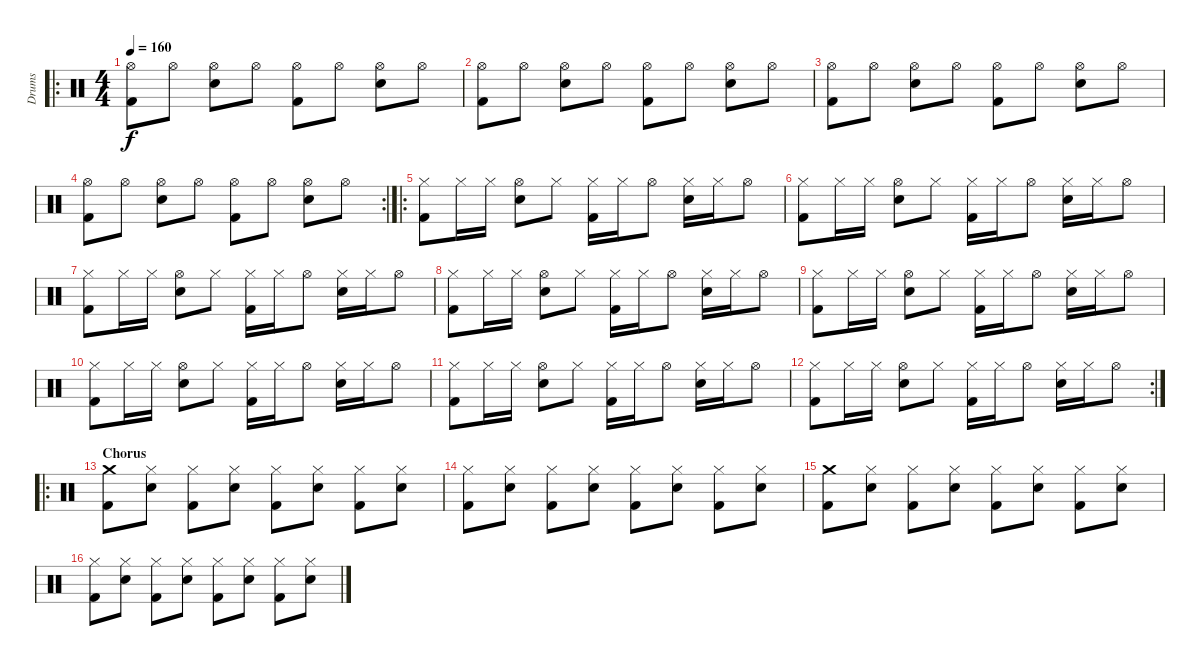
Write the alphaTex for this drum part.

\track ("Drums" "Drums") {instrument percussion}
\staff {score}
\articulation defaults
\ro
\ts (4 4)
\tempo 160
\clef neutral
\ks c
("Hi-Hat (open)" "Kick (hit) 2").8{dy f} "Hi-Hat (open)".8 ("Hi-Hat (open)" "Snare (hit) 2").8 "Hi-Hat (open)".8 ("Hi-Hat (open)" "Kick (hit) 2").8 "Hi-Hat (open)".8 ("Hi-Hat (open)" "Snare (hit) 2").8 "Hi-Hat (open)".8 |
("Hi-Hat (open)" "Kick (hit) 2").8 "Hi-Hat (open)".8 ("Hi-Hat (open)" "Snare (hit) 2").8 "Hi-Hat (open)".8 ("Hi-Hat (open)" "Kick (hit) 2").8 "Hi-Hat (open)".8 ("Hi-Hat (open)" "Snare (hit) 2").8 "Hi-Hat (open)".8 |
("Hi-Hat (open)" "Kick (hit) 2").8 "Hi-Hat (open)".8 ("Hi-Hat (open)" "Snare (hit) 2").8 "Hi-Hat (open)".8 ("Hi-Hat (open)" "Kick (hit) 2").8 "Hi-Hat (open)".8 ("Hi-Hat (open)" "Snare (hit) 2").8 "Hi-Hat (open)".8 |
\rc 2
("Hi-Hat (open)" "Kick (hit) 2").8 "Hi-Hat (open)".8 ("Hi-Hat (open)" "Snare (hit) 2").8 "Hi-Hat (open)".8 ("Hi-Hat (open)" "Kick (hit) 2").8 "Hi-Hat (open)".8 ("Hi-Hat (open)" "Snare (hit) 2").8 "Hi-Hat (open)".8 |
\ro
("Hi-Hat (closed)" "Kick (hit) 2").8 "Hi-Hat (closed)".16 "Hi-Hat (closed)".16 ("Hi-Hat (open)" "Snare (hit) 2").8 "Hi-Hat (closed)".8 ("Hi-Hat (closed)" "Kick (hit) 2").16 "Hi-Hat (closed)".16 "Hi-Hat (open)".8 ("Hi-Hat (closed)" "Snare (hit) 2").16 "Hi-Hat (closed)".16 "Hi-Hat (open)".8 |
("Hi-Hat (closed)" "Kick (hit) 2").8 "Hi-Hat (closed)".16 "Hi-Hat (closed)".16 ("Hi-Hat (open)" "Snare (hit) 2").8 "Hi-Hat (closed)".8 ("Hi-Hat (closed)" "Kick (hit) 2").16 "Hi-Hat (closed)".16 "Hi-Hat (open)".8 ("Hi-Hat (closed)" "Snare (hit) 2").16 "Hi-Hat (closed)".16 "Hi-Hat (open)".8 |
("Hi-Hat (closed)" "Kick (hit) 2").8 "Hi-Hat (closed)".16 "Hi-Hat (closed)".16 ("Hi-Hat (open)" "Snare (hit) 2").8 "Hi-Hat (closed)".8 ("Hi-Hat (closed)" "Kick (hit) 2").16 "Hi-Hat (closed)".16 "Hi-Hat (open)".8 ("Hi-Hat (closed)" "Snare (hit) 2").16 "Hi-Hat (closed)".16 "Hi-Hat (open)".8 |
("Hi-Hat (closed)" "Kick (hit) 2").8 "Hi-Hat (closed)".16 "Hi-Hat (closed)".16 ("Hi-Hat (open)" "Snare (hit) 2").8 "Hi-Hat (closed)".8 ("Hi-Hat (closed)" "Kick (hit) 2").16 "Hi-Hat (closed)".16 "Hi-Hat (open)".8 ("Hi-Hat (closed)" "Snare (hit) 2").16 "Hi-Hat (closed)".16 "Hi-Hat (open)".8 |
("Hi-Hat (closed)" "Kick (hit) 2").8 "Hi-Hat (closed)".16 "Hi-Hat (closed)".16 ("Hi-Hat (open)" "Snare (hit) 2").8 "Hi-Hat (closed)".8 ("Hi-Hat (closed)" "Kick (hit) 2").16 "Hi-Hat (closed)".16 "Hi-Hat (open)".8 ("Hi-Hat (closed)" "Snare (hit) 2").16 "Hi-Hat (closed)".16 "Hi-Hat (open)".8 |
("Hi-Hat (closed)" "Kick (hit) 2").8 "Hi-Hat (closed)".16 "Hi-Hat (closed)".16 ("Hi-Hat (open)" "Snare (hit) 2").8 "Hi-Hat (closed)".8 ("Hi-Hat (closed)" "Kick (hit) 2").16 "Hi-Hat (closed)".16 "Hi-Hat (open)".8 ("Hi-Hat (closed)" "Snare (hit) 2").16 "Hi-Hat (closed)".16 "Hi-Hat (open)".8 |
("Hi-Hat (closed)" "Kick (hit) 2").8 "Hi-Hat (closed)".16 "Hi-Hat (closed)".16 ("Hi-Hat (open)" "Snare (hit) 2").8 "Hi-Hat (closed)".8 ("Hi-Hat (closed)" "Kick (hit) 2").16 "Hi-Hat (closed)".16 "Hi-Hat (open)".8 ("Hi-Hat (closed)" "Snare (hit) 2").16 "Hi-Hat (closed)".16 "Hi-Hat (open)".8 |
\rc 2
("Hi-Hat (closed)" "Kick (hit) 2").8 "Hi-Hat (closed)".16 "Hi-Hat (closed)".16 ("Hi-Hat (open)" "Snare (hit) 2").8 "Hi-Hat (closed)".8 ("Hi-Hat (closed)" "Kick (hit) 2").16 "Hi-Hat (closed)".16 "Hi-Hat (open)".8 ("Hi-Hat (closed)" "Snare (hit) 2").16 "Hi-Hat (closed)".16 "Hi-Hat (open)".8 |
\ro
\section ("" "Chorus")
("Crash medium (hit)" "Kick (hit) 2").8 ("Hi-Hat (closed)" "Snare (hit) 2").8 ("Hi-Hat (closed)" "Kick (hit) 2").8 ("Hi-Hat (closed)" "Snare (hit) 2").8 ("Hi-Hat (closed)" "Kick (hit) 2").8 ("Hi-Hat (closed)" "Snare (hit) 2").8 ("Hi-Hat (closed)" "Kick (hit) 2").8 ("Hi-Hat (closed)" "Snare (hit) 2").8 |
("Hi-Hat (closed)" "Kick (hit) 2").8 ("Hi-Hat (closed)" "Snare (hit) 2").8 ("Hi-Hat (closed)" "Kick (hit) 2").8 ("Hi-Hat (closed)" "Snare (hit) 2").8 ("Hi-Hat (closed)" "Kick (hit) 2").8 ("Hi-Hat (closed)" "Snare (hit) 2").8 ("Hi-Hat (closed)" "Kick (hit) 2").8 ("Hi-Hat (closed)" "Snare (hit) 2").8 |
("Crash medium (hit)" "Kick (hit) 2").8 ("Hi-Hat (closed)" "Snare (hit) 2").8 ("Hi-Hat (closed)" "Kick (hit) 2").8 ("Hi-Hat (closed)" "Snare (hit) 2").8 ("Hi-Hat (closed)" "Kick (hit) 2").8 ("Hi-Hat (closed)" "Snare (hit) 2").8 ("Hi-Hat (closed)" "Kick (hit) 2").8 ("Hi-Hat (closed)" "Snare (hit) 2").8 |
("Hi-Hat (closed)" "Kick (hit) 2").8 ("Hi-Hat (closed)" "Snare (hit) 2").8 ("Hi-Hat (closed)" "Kick (hit) 2").8 ("Hi-Hat (closed)" "Snare (hit) 2").8 ("Hi-Hat (closed)" "Kick (hit) 2").8 ("Hi-Hat (closed)" "Snare (hit) 2").8 ("Hi-Hat (closed)" "Kick (hit) 2").8 ("Hi-Hat (closed)" "Snare (hit) 2").8
